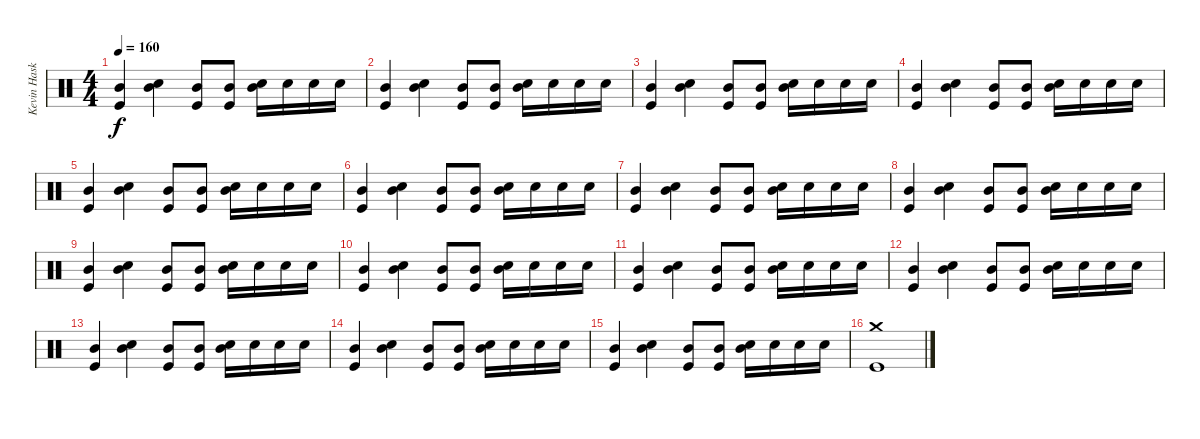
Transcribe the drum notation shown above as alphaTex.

\track ("Kevin Haskins" "Kevin Hask") {instrument percussion}
\staff {score}
\articulation defaults
\ts (4 4)
\tempo 160
\clef neutral
\ks c
("Mid Tom (hit)" "Kick (hit)").4{dy f} ("Snare (hit) 2" "Mid Tom (hit)").4 ("Mid Tom (hit)" "Kick (hit)").8 ("Mid Tom (hit)" "Kick (hit)").8 ("Snare (hit) 2" "Mid Tom (hit)").16 "Snare (hit) 2".16 "Snare (hit) 2".16 "Snare (hit) 2".16 |
("Mid Tom (hit)" "Kick (hit)").4 ("Snare (hit) 2" "Mid Tom (hit)").4 ("Mid Tom (hit)" "Kick (hit)").8 ("Mid Tom (hit)" "Kick (hit)").8 ("Snare (hit) 2" "Mid Tom (hit)").16 "Snare (hit) 2".16 "Snare (hit) 2".16 "Snare (hit) 2".16 |
("Mid Tom (hit)" "Kick (hit)").4 ("Snare (hit) 2" "Mid Tom (hit)").4 ("Mid Tom (hit)" "Kick (hit)").8 ("Mid Tom (hit)" "Kick (hit)").8 ("Snare (hit) 2" "Mid Tom (hit)").16 "Snare (hit) 2".16 "Snare (hit) 2".16 "Snare (hit) 2".16 |
("Mid Tom (hit)" "Kick (hit)").4 ("Snare (hit) 2" "Mid Tom (hit)").4 ("Mid Tom (hit)" "Kick (hit)").8 ("Mid Tom (hit)" "Kick (hit)").8 ("Snare (hit) 2" "Mid Tom (hit)").16 "Snare (hit) 2".16 "Snare (hit) 2".16 "Snare (hit) 2".16 |
("Mid Tom (hit)" "Kick (hit)").4 ("Snare (hit) 2" "Mid Tom (hit)").4 ("Mid Tom (hit)" "Kick (hit)").8 ("Mid Tom (hit)" "Kick (hit)").8 ("Snare (hit) 2" "Mid Tom (hit)").16 "Snare (hit) 2".16 "Snare (hit) 2".16 "Snare (hit) 2".16 |
("Mid Tom (hit)" "Kick (hit)").4 ("Snare (hit) 2" "Mid Tom (hit)").4 ("Mid Tom (hit)" "Kick (hit)").8 ("Mid Tom (hit)" "Kick (hit)").8 ("Snare (hit) 2" "Mid Tom (hit)").16 "Snare (hit) 2".16 "Snare (hit) 2".16 "Snare (hit) 2".16 |
("Mid Tom (hit)" "Kick (hit)").4 ("Snare (hit) 2" "Mid Tom (hit)").4 ("Mid Tom (hit)" "Kick (hit)").8 ("Mid Tom (hit)" "Kick (hit)").8 ("Snare (hit) 2" "Mid Tom (hit)").16 "Snare (hit) 2".16 "Snare (hit) 2".16 "Snare (hit) 2".16 |
("Mid Tom (hit)" "Kick (hit)").4 ("Snare (hit) 2" "Mid Tom (hit)").4 ("Mid Tom (hit)" "Kick (hit)").8 ("Mid Tom (hit)" "Kick (hit)").8 ("Snare (hit) 2" "Mid Tom (hit)").16 "Snare (hit) 2".16 "Snare (hit) 2".16 "Snare (hit) 2".16 |
("Mid Tom (hit)" "Kick (hit)").4 ("Snare (hit) 2" "Mid Tom (hit)").4 ("Mid Tom (hit)" "Kick (hit)").8 ("Mid Tom (hit)" "Kick (hit)").8 ("Snare (hit) 2" "Mid Tom (hit)").16 "Snare (hit) 2".16 "Snare (hit) 2".16 "Snare (hit) 2".16 |
("Mid Tom (hit)" "Kick (hit)").4 ("Snare (hit) 2" "Mid Tom (hit)").4 ("Mid Tom (hit)" "Kick (hit)").8 ("Mid Tom (hit)" "Kick (hit)").8 ("Snare (hit) 2" "Mid Tom (hit)").16 "Snare (hit) 2".16 "Snare (hit) 2".16 "Snare (hit) 2".16 |
("Mid Tom (hit)" "Kick (hit)").4 ("Snare (hit) 2" "Mid Tom (hit)").4 ("Mid Tom (hit)" "Kick (hit)").8 ("Mid Tom (hit)" "Kick (hit)").8 ("Snare (hit) 2" "Mid Tom (hit)").16 "Snare (hit) 2".16 "Snare (hit) 2".16 "Snare (hit) 2".16 |
("Mid Tom (hit)" "Kick (hit)").4 ("Snare (hit) 2" "Mid Tom (hit)").4 ("Mid Tom (hit)" "Kick (hit)").8 ("Mid Tom (hit)" "Kick (hit)").8 ("Snare (hit) 2" "Mid Tom (hit)").16 "Snare (hit) 2".16 "Snare (hit) 2".16 "Snare (hit) 2".16 |
("Mid Tom (hit)" "Kick (hit)").4 ("Snare (hit) 2" "Mid Tom (hit)").4 ("Mid Tom (hit)" "Kick (hit)").8 ("Mid Tom (hit)" "Kick (hit)").8 ("Snare (hit) 2" "Mid Tom (hit)").16 "Snare (hit) 2".16 "Snare (hit) 2".16 "Snare (hit) 2".16 |
("Mid Tom (hit)" "Kick (hit)").4 ("Snare (hit) 2" "Mid Tom (hit)").4 ("Mid Tom (hit)" "Kick (hit)").8 ("Mid Tom (hit)" "Kick (hit)").8 ("Snare (hit) 2" "Mid Tom (hit)").16 "Snare (hit) 2".16 "Snare (hit) 2".16 "Snare (hit) 2".16 |
("Mid Tom (hit)" "Kick (hit)").4 ("Snare (hit) 2" "Mid Tom (hit)").4 ("Mid Tom (hit)" "Kick (hit)").8 ("Mid Tom (hit)" "Kick (hit)").8 ("Snare (hit) 2" "Mid Tom (hit)").16 "Snare (hit) 2".16 "Snare (hit) 2".16 "Snare (hit) 2".16 |
("Crash medium (hit)" "Kick (hit)").1
